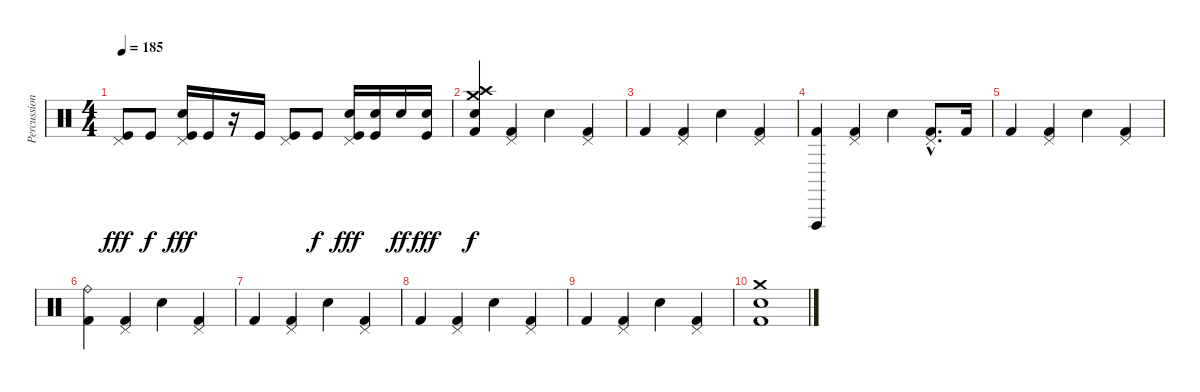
\track ("Percussions" "Percussion") {instrument percussion}
\staff {score}
\articulation defaults
\ts (4 4)
\tempo 185
\clef neutral
\ks c
("Pedal Hi-Hat (hit)" "Kick (hit)").8{dy fff} "Kick (hit)".8{dy f} ("Pedal Hi-Hat (hit)" "Electric Snare (hit)" "Kick (hit)").16{dy fff} "Kick (hit)".16 r.16 "Kick (hit)".16 ("Pedal Hi-Hat (hit)" "Kick (hit)").8 "Kick (hit)".8{dy f} ("Pedal Hi-Hat (hit)" "Electric Snare (hit)" "Kick (hit)").16{dy fff} ("Electric Snare (hit)" "Kick (hit)").16 "Electric Snare (hit)".16{dy ff} ("Electric Snare (hit)" "Kick (hit)").16{dy fff} |
\section ("" "")
("Crash medium (hit)" "Crash high (hit)" "Electric Snare (hit)" "Kick (hit) 2").4{dy f} ("Pedal Hi-Hat (hit)" "Kick (hit) 2").4 "Snare (hit) 2".4 ("Pedal Hi-Hat (hit)" "Kick (hit) 2").4 |
"Kick (hit) 2".4 ("Pedal Hi-Hat (hit)" "Kick (hit) 2").4 "Snare (hit) 2".4 ("Pedal Hi-Hat (hit)" "Kick (hit) 2").4 |
("Vibraslap (hit)" "Kick (hit) 2").4 ("Pedal Hi-Hat (hit)" "Kick (hit) 2").4 "Snare (hit) 2".4 ("Pedal Hi-Hat (hit)"{hac} "Kick (hit) 2"{hac}).8{d} "Kick (hit) 2".16 |
"Kick (hit) 2".4 ("Pedal Hi-Hat (hit)" "Kick (hit) 2").4 "Snare (hit) 2".4 ("Pedal Hi-Hat (hit)" "Kick (hit) 2").4 |
("Ride (bell)" "Kick (hit) 2").4 ("Pedal Hi-Hat (hit)" "Kick (hit) 2").4 "Snare (hit) 2".4 ("Pedal Hi-Hat (hit)" "Kick (hit) 2").4 |
"Kick (hit) 2".4 ("Pedal Hi-Hat (hit)" "Kick (hit) 2").4 "Snare (hit) 2".4 ("Pedal Hi-Hat (hit)" "Kick (hit) 2").4 |
"Kick (hit) 2".4 ("Pedal Hi-Hat (hit)" "Kick (hit) 2").4 "Snare (hit) 2".4 ("Pedal Hi-Hat (hit)" "Kick (hit) 2").4 |
"Kick (hit) 2".4 ("Pedal Hi-Hat (hit)" "Kick (hit) 2").4 "Snare (hit) 2".4 ("Pedal Hi-Hat (hit)" "Kick (hit) 2").4 |
\section ("" "")
("Crash medium (hit)" "Snare (hit) 2" "Kick (hit) 2").1
